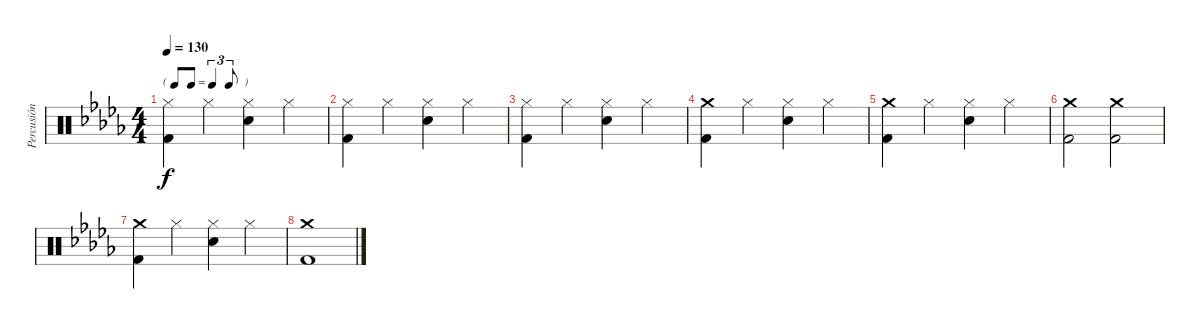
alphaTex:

\track ("Percusión" "Percusión") {instrument percussion}
\staff {score}
\articulation defaults
\ts (4 4)
\tf triplet8th
\tempo 130
\clef neutral
\ks db
("Hi-Hat (closed)" "Kick (hit) 2").4{dy f} "Hi-Hat (closed)".4 ("Hi-Hat (closed)" "Snare (hit) 2").4 "Hi-Hat (closed)".4 |
("Hi-Hat (closed)" "Kick (hit) 2").4 "Hi-Hat (closed)".4 ("Hi-Hat (closed)" "Snare (hit) 2").4 "Hi-Hat (closed)".4 |
("Hi-Hat (closed)" "Kick (hit) 2").4 "Hi-Hat (closed)".4 ("Hi-Hat (closed)" "Snare (hit) 2").4 "Hi-Hat (closed)".4 |
("Crash medium (hit)" "Kick (hit) 2").4 "Hi-Hat (closed)".4 ("Hi-Hat (closed)" "Snare (hit) 2").4 "Hi-Hat (closed)".4 |
("Crash medium (hit)" "Kick (hit) 2").4 "Hi-Hat (closed)".4 ("Hi-Hat (closed)" "Snare (hit) 2").4 "Hi-Hat (closed)".4 |
("Crash medium (hit)" "Kick (hit) 2").2 ("Crash medium (hit)" "Kick (hit) 2").2 |
("Crash medium (hit)" "Kick (hit) 2").4 "Hi-Hat (closed)".4 ("Hi-Hat (closed)" "Snare (hit) 2").4 "Hi-Hat (closed)".4 |
("Crash medium (hit)" "Kick (hit) 2").1
